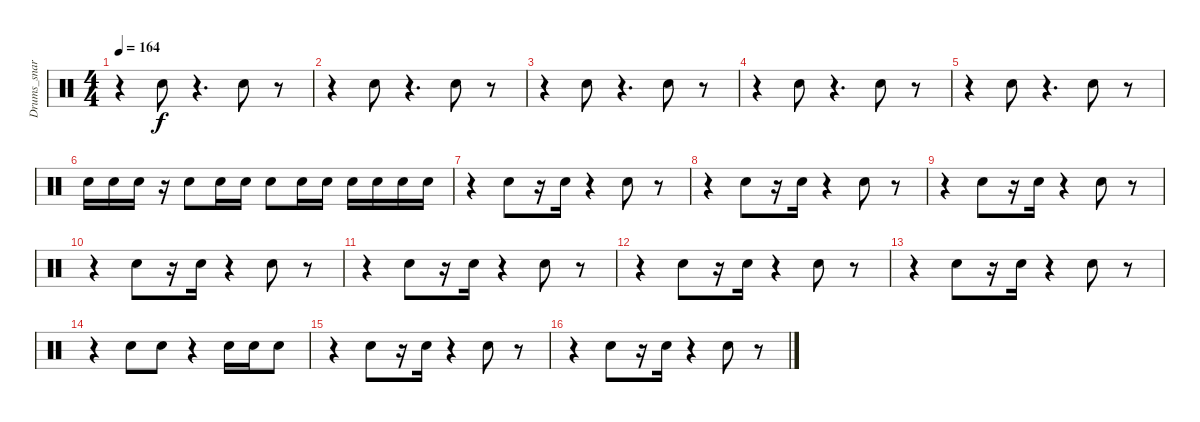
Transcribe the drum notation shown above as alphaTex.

\track ("Drums_snare&tom" "Drums_snar") {instrument percussion}
\staff {score}
\articulation defaults
\ts (4 4)
\tempo 164
\clef neutral
\ks c
r.4{dy f} "Snare (hit) 2".8 r.4{d} "Snare (hit) 2".8 r.8 |
r.4 "Snare (hit) 2".8 r.4{d} "Snare (hit) 2".8 r.8 |
r.4 "Snare (hit) 2".8 r.4{d} "Snare (hit) 2".8 r.8 |
r.4 "Snare (hit) 2".8 r.4{d} "Snare (hit) 2".8 r.8 |
r.4 "Snare (hit) 2".8 r.4{d} "Snare (hit) 2".8 r.8 |
"Snare (hit) 2".16 "Snare (hit) 2".16 "Snare (hit) 2".16 r.16 "Snare (hit) 2".8 "Snare (hit) 2".16 "Snare (hit) 2".16 "Snare (hit) 2".8 "Snare (hit) 2".16 "Snare (hit) 2".16 "Snare (hit) 2".16 "Snare (hit) 2".16 "Snare (hit) 2".16 "Snare (hit) 2".16 |
r.4 "Snare (hit) 2".8 r.16 "Snare (hit) 2".16 r.4 "Snare (hit) 2".8 r.8 |
r.4 "Snare (hit) 2".8 r.16 "Snare (hit) 2".16 r.4 "Snare (hit) 2".8 r.8 |
r.4 "Snare (hit) 2".8 r.16 "Snare (hit) 2".16 r.4 "Snare (hit) 2".8 r.8 |
r.4 "Snare (hit) 2".8 r.16 "Snare (hit) 2".16 r.4 "Snare (hit) 2".8 r.8 |
r.4 "Snare (hit) 2".8 r.16 "Snare (hit) 2".16 r.4 "Snare (hit) 2".8 r.8 |
r.4 "Snare (hit) 2".8 r.16 "Snare (hit) 2".16 r.4 "Snare (hit) 2".8 r.8 |
r.4 "Snare (hit) 2".8 r.16 "Snare (hit) 2".16 r.4 "Snare (hit) 2".8 r.8 |
r.4 "Snare (hit) 2".8 "Snare (hit) 2".8 r.4 "Snare (hit) 2".16 "Snare (hit) 2".16 "Snare (hit) 2".8 |
r.4 "Snare (hit) 2".8 r.16 "Snare (hit) 2".16 r.4 "Snare (hit) 2".8 r.8 |
r.4 "Snare (hit) 2".8 r.16 "Snare (hit) 2".16 r.4 "Snare (hit) 2".8 r.8
